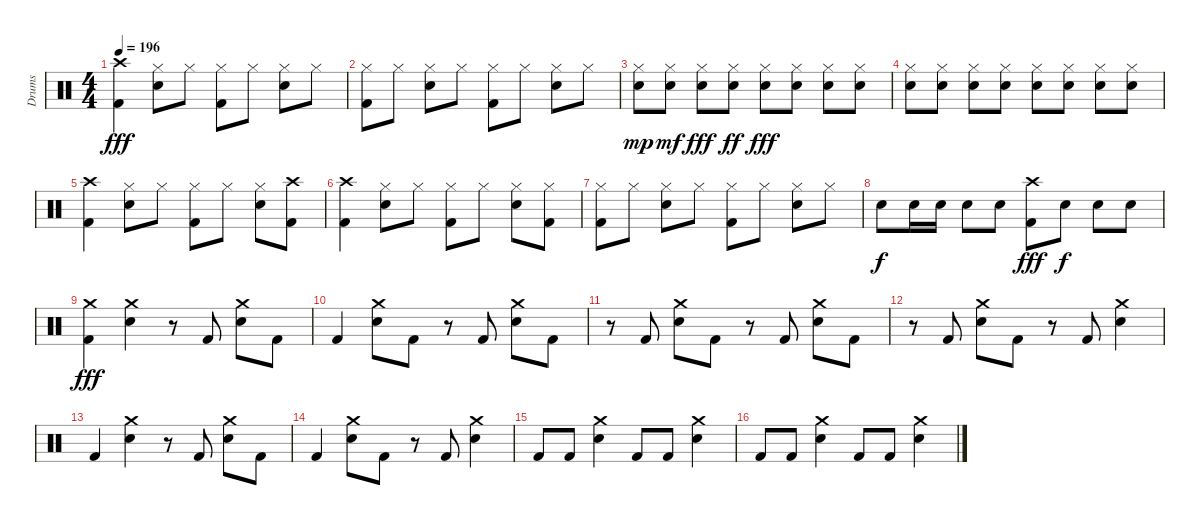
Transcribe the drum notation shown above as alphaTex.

\track ("Drums" "Drums") {instrument percussion}
\staff {score}
\articulation defaults
\ts (4 4)
\tempo 196
\clef neutral
\ks c
("Crash high (hit)" "Kick (hit) 2").4{dy fff} ("Hi-Hat (closed)" "Snare (hit) 2").8 "Hi-Hat (closed)".8 ("Hi-Hat (closed)" "Kick (hit) 2").8 "Hi-Hat (closed)".8 ("Hi-Hat (closed)" "Snare (hit) 2").8 "Hi-Hat (closed)".8 |
("Hi-Hat (closed)" "Kick (hit) 2").8 "Hi-Hat (closed)".8 ("Hi-Hat (closed)" "Snare (hit) 2").8 "Hi-Hat (closed)".8 ("Hi-Hat (closed)" "Kick (hit) 2").8 "Hi-Hat (closed)".8 ("Hi-Hat (closed)" "Snare (hit) 2").8 "Hi-Hat (closed)".8 |
("Hi-Hat (closed)" "Snare (hit) 2").8{dy mp} ("Hi-Hat (closed)" "Snare (hit) 2").8{dy mf} ("Hi-Hat (closed)" "Snare (hit) 2").8{dy fff} ("Hi-Hat (closed)" "Snare (hit) 2").8{dy ff} ("Hi-Hat (closed)" "Snare (hit) 2").8{dy fff} ("Hi-Hat (closed)" "Snare (hit) 2").8 ("Hi-Hat (closed)" "Snare (hit) 2").8 ("Hi-Hat (closed)" "Snare (hit) 2").8 |
("Hi-Hat (closed)" "Snare (hit) 2").8 ("Hi-Hat (closed)" "Snare (hit) 2").8 ("Hi-Hat (closed)" "Snare (hit) 2").8 ("Hi-Hat (closed)" "Snare (hit) 2").8 ("Hi-Hat (closed)" "Snare (hit) 2").8 ("Hi-Hat (closed)" "Snare (hit) 2").8 ("Hi-Hat (closed)" "Snare (hit) 2").8 ("Hi-Hat (closed)" "Snare (hit) 2").8 |
("Crash high (hit)" "Kick (hit) 2").4 ("Hi-Hat (closed)" "Snare (hit) 2").8 "Hi-Hat (closed)".8 ("Hi-Hat (closed)" "Kick (hit) 2").8 "Hi-Hat (closed)".8 ("Hi-Hat (closed)" "Snare (hit) 2").8 ("Crash high (hit)" "Kick (hit) 2").8 |
("Crash high (hit)" "Kick (hit) 2").4 ("Hi-Hat (closed)" "Snare (hit) 2").8 "Hi-Hat (closed)".8 ("Hi-Hat (closed)" "Kick (hit) 2").8 "Hi-Hat (closed)".8 ("Hi-Hat (closed)" "Snare (hit) 2").8 ("Hi-Hat (closed)" "Kick (hit) 2").8 |
("Hi-Hat (closed)" "Kick (hit) 2").8 "Hi-Hat (closed)".8 ("Hi-Hat (closed)" "Snare (hit) 2").8 "Hi-Hat (closed)".8 ("Hi-Hat (closed)" "Kick (hit) 2").8 "Hi-Hat (closed)".8 ("Hi-Hat (closed)" "Snare (hit) 2").8 "Hi-Hat (closed)".8 |
"Snare (hit) 2".8{dy f} "Snare (hit) 2".16 "Snare (hit) 2".16 "Snare (hit) 2".8 "Snare (hit) 2".8 ("Crash high (hit)" "Kick (hit) 2").8{dy fff} "Snare (hit) 2".8{dy f} "Snare (hit) 2".8 "Snare (hit) 2".8 |
("Crash medium (hit)" "Kick (hit) 2").4{dy fff} ("Crash medium (hit)" "Snare (hit) 2").4 r.8 "Kick (hit) 2".8 ("Crash medium (hit)" "Snare (hit) 2").8 "Kick (hit) 2".8 |
"Kick (hit) 2".4 ("Crash medium (hit)" "Snare (hit) 2").8 "Kick (hit) 2".8 r.8 "Kick (hit) 2".8 ("Crash medium (hit)" "Snare (hit) 2").8 "Kick (hit) 2".8 |
r.8 "Kick (hit) 2".8 ("Crash medium (hit)" "Snare (hit) 2").8 "Kick (hit) 2".8 r.8 "Kick (hit) 2".8 ("Crash medium (hit)" "Snare (hit) 2").8 "Kick (hit) 2".8 |
r.8 "Kick (hit) 2".8 ("Crash medium (hit)" "Snare (hit) 2").8 "Kick (hit) 2".8 r.8 "Kick (hit) 2".8 ("Crash medium (hit)" "Snare (hit) 2").4 |
"Kick (hit) 2".4 ("Crash medium (hit)" "Snare (hit) 2").4 r.8 "Kick (hit) 2".8 ("Crash medium (hit)" "Snare (hit) 2").8 "Kick (hit) 2".8 |
"Kick (hit) 2".4 ("Crash medium (hit)" "Snare (hit) 2").8 "Kick (hit) 2".8 r.8 "Kick (hit) 2".8 ("Crash medium (hit)" "Snare (hit) 2").4 |
"Kick (hit) 2".8 "Kick (hit) 2".8 ("Crash medium (hit)" "Snare (hit) 2").4 "Kick (hit) 2".8 "Kick (hit) 2".8 ("Crash medium (hit)" "Snare (hit) 2").4 |
"Kick (hit) 2".8 "Kick (hit) 2".8 ("Crash medium (hit)" "Snare (hit) 2").4 "Kick (hit) 2".8 "Kick (hit) 2".8 ("Crash medium (hit)" "Snare (hit) 2").4
